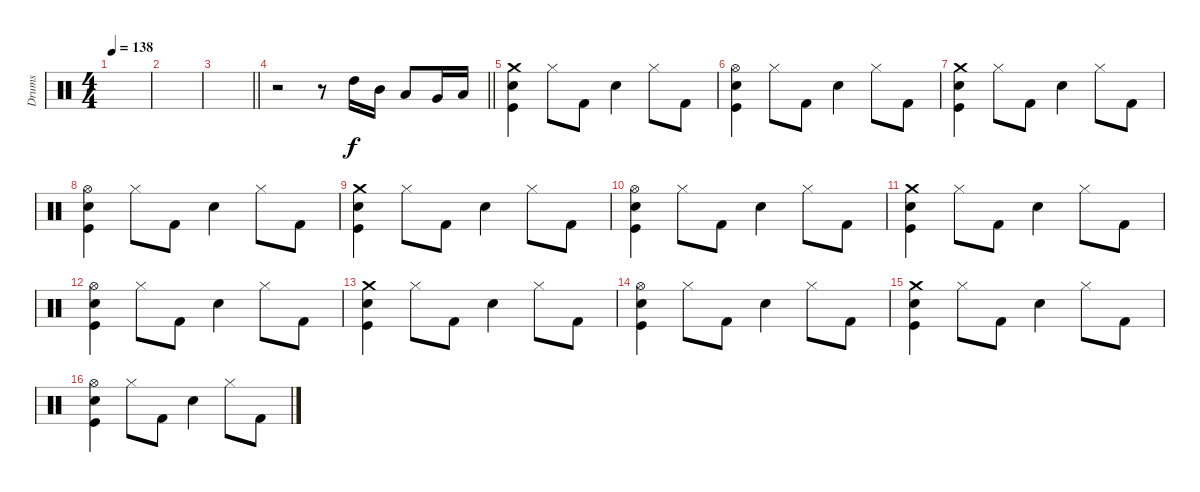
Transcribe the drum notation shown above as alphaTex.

\track ("Drums" "Drums") {instrument percussion}
\staff {score}
\articulation defaults
\ts (4 4)
\tempo 138
\clef neutral
\ks c
|
|
\barLineRight lightlight
|
\barLineRight lightlight
r.2 r.8 "High Tom (hit)".16 "Mid Tom (hit)".16 "Low Tom (hit)".8 "Very Low Tom (hit)".16 "Low Floor Tom (hit)".16 |
\section ("" "")
("Crash medium (hit)" "Electric Snare (hit)" "Kick (hit)").4{volume 10} "Hi-Hat (closed)".8 "Kick (hit) 2".8 "Electric Snare (hit)".4 "Hi-Hat (closed)".8 "Kick (hit) 2".8 |
("Hi-Hat (open)" "Electric Snare (hit)" "Kick (hit)").4 "Hi-Hat (closed)".8 "Kick (hit) 2".8 "Electric Snare (hit)".4 "Hi-Hat (closed)".8 "Kick (hit) 2".8 |
("Crash medium (hit)" "Electric Snare (hit)" "Kick (hit)").4 "Hi-Hat (closed)".8 "Kick (hit) 2".8 "Electric Snare (hit)".4 "Hi-Hat (closed)".8 "Kick (hit) 2".8 |
("Hi-Hat (open)" "Electric Snare (hit)" "Kick (hit)").4 "Hi-Hat (closed)".8 "Kick (hit) 2".8 "Electric Snare (hit)".4 "Hi-Hat (closed)".8 "Kick (hit) 2".8 |
("Crash medium (hit)" "Electric Snare (hit)" "Kick (hit)").4 "Hi-Hat (closed)".8 "Kick (hit) 2".8 "Electric Snare (hit)".4 "Hi-Hat (closed)".8 "Kick (hit) 2".8 |
("Hi-Hat (open)" "Electric Snare (hit)" "Kick (hit)").4 "Hi-Hat (closed)".8 "Kick (hit) 2".8 "Electric Snare (hit)".4 "Hi-Hat (closed)".8 "Kick (hit) 2".8 |
("Crash medium (hit)" "Electric Snare (hit)" "Kick (hit)").4 "Hi-Hat (closed)".8 "Kick (hit) 2".8 "Electric Snare (hit)".4 "Hi-Hat (closed)".8 "Kick (hit) 2".8 |
("Hi-Hat (open)" "Electric Snare (hit)" "Kick (hit)").4 "Hi-Hat (closed)".8 "Kick (hit) 2".8 "Electric Snare (hit)".4 "Hi-Hat (closed)".8 "Kick (hit) 2".8 |
("Crash medium (hit)" "Electric Snare (hit)" "Kick (hit)").4 "Hi-Hat (closed)".8 "Kick (hit) 2".8 "Electric Snare (hit)".4 "Hi-Hat (closed)".8 "Kick (hit) 2".8 |
("Hi-Hat (open)" "Electric Snare (hit)" "Kick (hit)").4 "Hi-Hat (closed)".8 "Kick (hit) 2".8 "Electric Snare (hit)".4 "Hi-Hat (closed)".8 "Kick (hit) 2".8 |
("Crash medium (hit)" "Electric Snare (hit)" "Kick (hit)").4 "Hi-Hat (closed)".8 "Kick (hit) 2".8 "Electric Snare (hit)".4 "Hi-Hat (closed)".8 "Kick (hit) 2".8 |
("Hi-Hat (open)" "Electric Snare (hit)" "Kick (hit)").4 "Hi-Hat (closed)".8 "Kick (hit) 2".8 "Electric Snare (hit)".4 "Hi-Hat (closed)".8 "Kick (hit) 2".8
